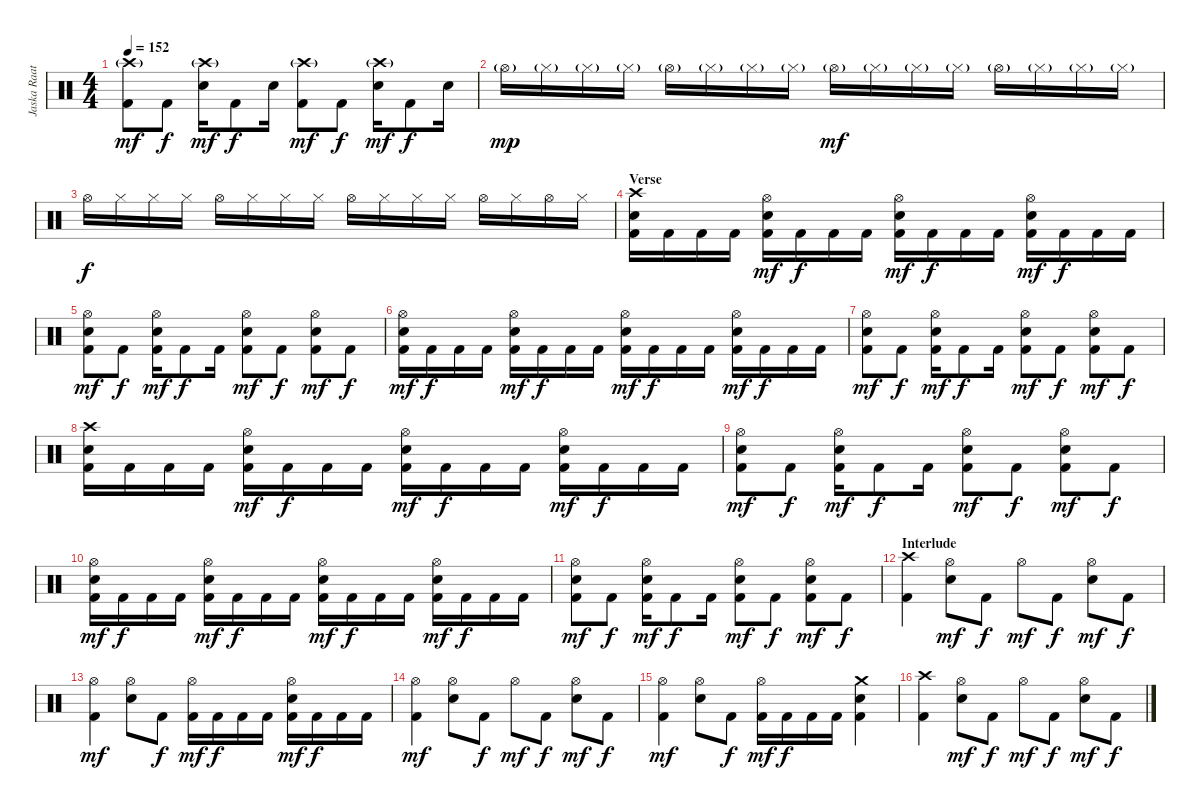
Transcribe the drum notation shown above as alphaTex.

\track ("Jaska Raatikainen" "Jaska Raat") {instrument percussion}
\staff {score}
\articulation defaults
\ts (4 4)
\tempo 152
\clef neutral
\ks c
("Crash high (hit)"{g} "Kick (hit) 2").8{dy mf} "Kick (hit) 2".8{dy f} ("Crash high (hit)"{g} "Electric Snare (hit)").16{dy mf} "Kick (hit) 2".8{dy f} "Electric Snare (hit)".16 ("Crash high (hit)"{g} "Kick (hit) 2").8{dy mf} "Kick (hit) 2".8{dy f} ("Crash high (hit)"{g} "Electric Snare (hit)").16{dy mf} "Kick (hit) 2".8{dy f} "Electric Snare (hit)".16 |
"Hi-Hat (open)"{g}.16{dy mp} "Hi-Hat (closed)"{g}.16 "Hi-Hat (closed)"{g}.16 "Hi-Hat (closed)"{g}.16 "Hi-Hat (open)"{g}.16 "Hi-Hat (closed)"{g}.16 "Hi-Hat (closed)"{g}.16 "Hi-Hat (closed)"{g}.16 "Hi-Hat (open)"{g}.16{dy mf} "Hi-Hat (closed)"{g}.16 "Hi-Hat (closed)"{g}.16 "Hi-Hat (closed)"{g}.16 "Hi-Hat (open)"{g}.16 "Hi-Hat (closed)"{g}.16 "Hi-Hat (closed)"{g}.16 "Hi-Hat (closed)"{g}.16 |
"Hi-Hat (open)".16{dy f} "Hi-Hat (closed)".16 "Hi-Hat (closed)".16 "Hi-Hat (closed)".16 "Hi-Hat (open)".16 "Hi-Hat (closed)".16 "Hi-Hat (closed)".16 "Hi-Hat (closed)".16 "Hi-Hat (open)".16 "Hi-Hat (closed)".16 "Hi-Hat (closed)".16 "Hi-Hat (closed)".16 "Hi-Hat (open)".16 "Hi-Hat (closed)".16 "Hi-Hat (open)".16 "Hi-Hat (closed)".16 |
\section ("" "Verse")
("Crash high (hit)" "Electric Snare (hit)" "Kick (hit) 2").16 "Kick (hit) 2".16 "Kick (hit) 2".16 "Kick (hit) 2".16 ("Hi-Hat (open)" "Electric Snare (hit)" "Kick (hit) 2").16{dy mf} "Kick (hit) 2".16{dy f} "Kick (hit) 2".16 "Kick (hit) 2".16 ("Hi-Hat (open)" "Electric Snare (hit)" "Kick (hit) 2").16{dy mf} "Kick (hit) 2".16{dy f} "Kick (hit) 2".16 "Kick (hit) 2".16 ("Hi-Hat (open)" "Electric Snare (hit)" "Kick (hit) 2").16{dy mf} "Kick (hit) 2".16{dy f} "Kick (hit) 2".16 "Kick (hit) 2".16 |
("Hi-Hat (open)" "Electric Snare (hit)" "Kick (hit) 2").8{dy mf} "Kick (hit) 2".8{dy f} ("Hi-Hat (open)" "Electric Snare (hit)" "Kick (hit) 2").16{dy mf} "Kick (hit) 2".8{dy f} "Kick (hit) 2".16 ("Hi-Hat (open)" "Electric Snare (hit)" "Kick (hit) 2").8{dy mf} "Kick (hit) 2".8{dy f} ("Hi-Hat (open)" "Electric Snare (hit)" "Kick (hit) 2").8{dy mf} "Kick (hit) 2".8{dy f} |
("Hi-Hat (open)" "Electric Snare (hit)" "Kick (hit) 2").16{dy mf} "Kick (hit) 2".16{dy f} "Kick (hit) 2".16 "Kick (hit) 2".16 ("Hi-Hat (open)" "Electric Snare (hit)" "Kick (hit) 2").16{dy mf} "Kick (hit) 2".16{dy f} "Kick (hit) 2".16 "Kick (hit) 2".16 ("Hi-Hat (open)" "Electric Snare (hit)" "Kick (hit) 2").16{dy mf} "Kick (hit) 2".16{dy f} "Kick (hit) 2".16 "Kick (hit) 2".16 ("Hi-Hat (open)" "Electric Snare (hit)" "Kick (hit) 2").16{dy mf} "Kick (hit) 2".16{dy f} "Kick (hit) 2".16 "Kick (hit) 2".16 |
("Hi-Hat (open)" "Electric Snare (hit)" "Kick (hit) 2").8{dy mf} "Kick (hit) 2".8{dy f} ("Hi-Hat (open)" "Electric Snare (hit)" "Kick (hit) 2").16{dy mf} "Kick (hit) 2".8{dy f} "Kick (hit) 2".16 ("Hi-Hat (open)" "Electric Snare (hit)" "Kick (hit) 2").8{dy mf} "Kick (hit) 2".8{dy f} ("Hi-Hat (open)" "Electric Snare (hit)" "Kick (hit) 2").8{dy mf} "Kick (hit) 2".8{dy f} |
("Crash high (hit)" "Electric Snare (hit)" "Kick (hit) 2").16 "Kick (hit) 2".16 "Kick (hit) 2".16 "Kick (hit) 2".16 ("Hi-Hat (open)" "Electric Snare (hit)" "Kick (hit) 2").16{dy mf} "Kick (hit) 2".16{dy f} "Kick (hit) 2".16 "Kick (hit) 2".16 ("Hi-Hat (open)" "Electric Snare (hit)" "Kick (hit) 2").16{dy mf} "Kick (hit) 2".16{dy f} "Kick (hit) 2".16 "Kick (hit) 2".16 ("Hi-Hat (open)" "Electric Snare (hit)" "Kick (hit) 2").16{dy mf} "Kick (hit) 2".16{dy f} "Kick (hit) 2".16 "Kick (hit) 2".16 |
("Hi-Hat (open)" "Electric Snare (hit)" "Kick (hit) 2").8{dy mf} "Kick (hit) 2".8{dy f} ("Hi-Hat (open)" "Electric Snare (hit)" "Kick (hit) 2").16{dy mf} "Kick (hit) 2".8{dy f} "Kick (hit) 2".16 ("Hi-Hat (open)" "Electric Snare (hit)" "Kick (hit) 2").8{dy mf} "Kick (hit) 2".8{dy f} ("Hi-Hat (open)" "Electric Snare (hit)" "Kick (hit) 2").8{dy mf} "Kick (hit) 2".8{dy f} |
("Hi-Hat (open)" "Electric Snare (hit)" "Kick (hit) 2").16{dy mf} "Kick (hit) 2".16{dy f} "Kick (hit) 2".16 "Kick (hit) 2".16 ("Hi-Hat (open)" "Electric Snare (hit)" "Kick (hit) 2").16{dy mf} "Kick (hit) 2".16{dy f} "Kick (hit) 2".16 "Kick (hit) 2".16 ("Hi-Hat (open)" "Electric Snare (hit)" "Kick (hit) 2").16{dy mf} "Kick (hit) 2".16{dy f} "Kick (hit) 2".16 "Kick (hit) 2".16 ("Hi-Hat (open)" "Electric Snare (hit)" "Kick (hit) 2").16{dy mf} "Kick (hit) 2".16{dy f} "Kick (hit) 2".16 "Kick (hit) 2".16 |
("Hi-Hat (open)" "Electric Snare (hit)" "Kick (hit) 2").8{dy mf} "Kick (hit) 2".8{dy f} ("Hi-Hat (open)" "Electric Snare (hit)" "Kick (hit) 2").16{dy mf} "Kick (hit) 2".8{dy f} "Kick (hit) 2".16 ("Hi-Hat (open)" "Electric Snare (hit)" "Kick (hit) 2").8{dy mf} "Kick (hit) 2".8{dy f} ("Hi-Hat (open)" "Electric Snare (hit)" "Kick (hit) 2").8{dy mf} "Kick (hit) 2".8{dy f} |
\section ("" "Interlude ")
("Crash high (hit)" "Kick (hit) 2").4 ("Hi-Hat (open)" "Electric Snare (hit)").8{dy mf} "Kick (hit) 2".8{dy f} "Hi-Hat (open)".8{dy mf} "Kick (hit) 2".8{dy f} ("Hi-Hat (open)" "Electric Snare (hit)").8{dy mf} "Kick (hit) 2".8{dy f} |
("Hi-Hat (open)" "Kick (hit) 2").4{dy mf} ("Hi-Hat (open)" "Electric Snare (hit)").8 "Kick (hit) 2".8{dy f} ("Hi-Hat (open)" "Kick (hit) 2").16{dy mf} "Kick (hit) 2".16{dy f} "Kick (hit) 2".16 "Kick (hit) 2".16 ("Hi-Hat (open)" "Electric Snare (hit)" "Kick (hit) 2").16{dy mf} "Kick (hit) 2".16{dy f} "Kick (hit) 2".16 "Kick (hit) 2".16 |
("Hi-Hat (open)" "Kick (hit) 2").4{dy mf} ("Hi-Hat (open)" "Electric Snare (hit)").8 "Kick (hit) 2".8{dy f} "Hi-Hat (open)".8{dy mf} "Kick (hit) 2".8{dy f} ("Hi-Hat (open)" "Electric Snare (hit)").8{dy mf} "Kick (hit) 2".8{dy f} |
("Hi-Hat (open)" "Kick (hit) 2").4{dy mf} ("Hi-Hat (open)" "Electric Snare (hit)").8 "Kick (hit) 2".8{dy f} ("Hi-Hat (open)" "Kick (hit) 2").16{dy mf} "Kick (hit) 2".16{dy f} "Kick (hit) 2".16 "Kick (hit) 2".16 ("Crash medium (hit)" "Electric Snare (hit)" "Kick (hit) 2").4 |
("Crash high (hit)" "Kick (hit) 2").4 ("Hi-Hat (open)" "Electric Snare (hit)").8{dy mf} "Kick (hit) 2".8{dy f} "Hi-Hat (open)".8{dy mf} "Kick (hit) 2".8{dy f} ("Hi-Hat (open)" "Electric Snare (hit)").8{dy mf} "Kick (hit) 2".8{dy f}
